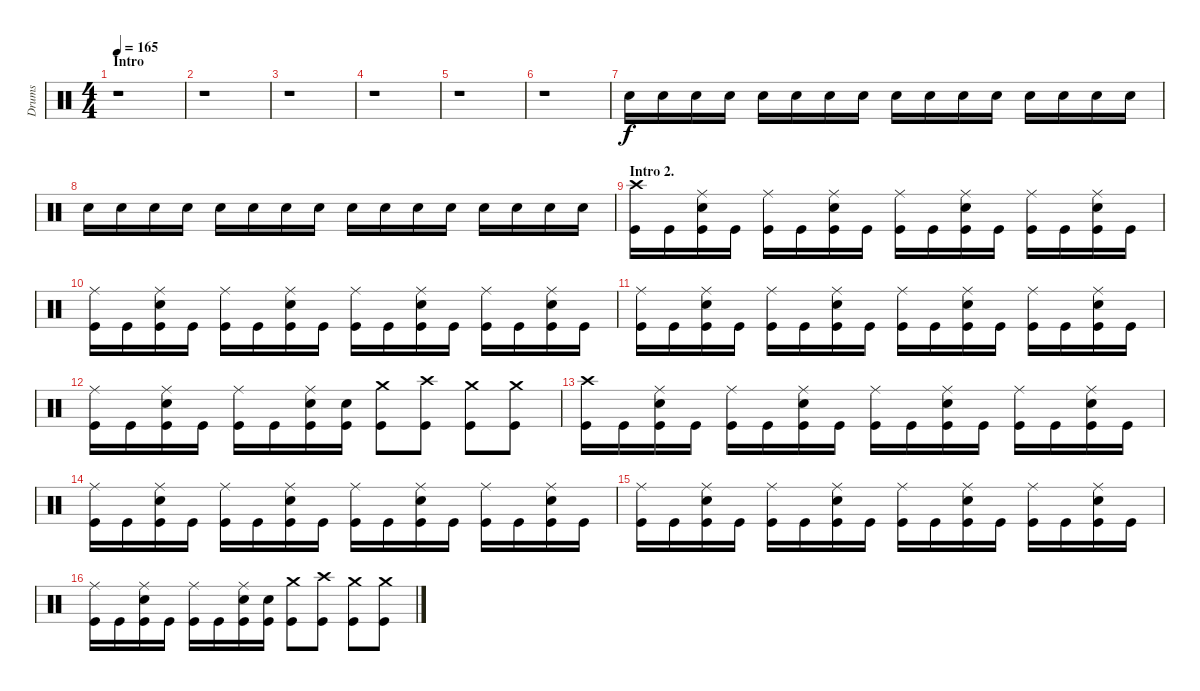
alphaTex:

\track ("Drums" "Drums") {instrument percussion}
\staff {score}
\articulation defaults
\ts (4 4)
\section ("" "Intro")
\tempo 165
\clef neutral
\ks c
r.1{dy f} |
r.1 |
r.1 |
r.1 |
r.1 |
r.1 |
"Snare (hit) 2".16 "Snare (hit) 2".16 "Snare (hit) 2".16 "Snare (hit) 2".16 "Snare (hit) 2".16 "Snare (hit) 2".16 "Snare (hit) 2".16 "Snare (hit) 2".16 "Snare (hit) 2".16 "Snare (hit) 2".16 "Snare (hit) 2".16 "Snare (hit) 2".16 "Snare (hit) 2".16 "Snare (hit) 2".16 "Snare (hit) 2".16 "Snare (hit) 2".16 |
"Snare (hit) 2".16 "Snare (hit) 2".16 "Snare (hit) 2".16 "Snare (hit) 2".16 "Snare (hit) 2".16 "Snare (hit) 2".16 "Snare (hit) 2".16 "Snare (hit) 2".16 "Snare (hit) 2".16 "Snare (hit) 2".16 "Snare (hit) 2".16 "Snare (hit) 2".16 "Snare (hit) 2".16 "Snare (hit) 2".16 "Snare (hit) 2".16 "Snare (hit) 2".16 |
\section ("" "Intro 2.")
("Crash high (hit)" "Kick (hit)").16 "Kick (hit)".16 ("Ride (middle)" "Snare (hit) 2" "Kick (hit)").16 "Kick (hit)".16 ("Ride (middle)" "Kick (hit)").16 "Kick (hit)".16 ("Ride (middle)" "Snare (hit) 2" "Kick (hit)").16 "Kick (hit)".16 ("Ride (middle)" "Kick (hit)").16 "Kick (hit)".16 ("Ride (middle)" "Snare (hit) 2" "Kick (hit)").16 "Kick (hit)".16 ("Ride (middle)" "Kick (hit)").16 "Kick (hit)".16 ("Ride (middle)" "Snare (hit) 2" "Kick (hit)").16 "Kick (hit)".16 |
("Ride (middle)" "Kick (hit)").16 "Kick (hit)".16 ("Ride (middle)" "Snare (hit) 2" "Kick (hit)").16 "Kick (hit)".16 ("Ride (middle)" "Kick (hit)").16 "Kick (hit)".16 ("Ride (middle)" "Snare (hit) 2" "Kick (hit)").16 "Kick (hit)".16 ("Ride (middle)" "Kick (hit)").16 "Kick (hit)".16 ("Ride (middle)" "Snare (hit) 2" "Kick (hit)").16 "Kick (hit)".16 ("Ride (middle)" "Kick (hit)").16 "Kick (hit)".16 ("Ride (middle)" "Snare (hit) 2" "Kick (hit)").16 "Kick (hit)".16 |
("Ride (middle)" "Kick (hit)").16 "Kick (hit)".16 ("Ride (middle)" "Snare (hit) 2" "Kick (hit)").16 "Kick (hit)".16 ("Ride (middle)" "Kick (hit)").16 "Kick (hit)".16 ("Ride (middle)" "Snare (hit) 2" "Kick (hit)").16 "Kick (hit)".16 ("Ride (middle)" "Kick (hit)").16 "Kick (hit)".16 ("Ride (middle)" "Snare (hit) 2" "Kick (hit)").16 "Kick (hit)".16 ("Ride (middle)" "Kick (hit)").16 "Kick (hit)".16 ("Ride (middle)" "Snare (hit) 2" "Kick (hit)").16 "Kick (hit)".16 |
("Ride (middle)" "Kick (hit)").16 "Kick (hit)".16 ("Ride (middle)" "Snare (hit) 2" "Kick (hit)").16 "Kick (hit)".16 ("Ride (middle)" "Kick (hit)").16 "Kick (hit)".16 ("Ride (middle)" "Snare (hit) 2" "Kick (hit)").16 ("Snare (hit) 2" "Kick (hit)").16 ("Crash medium (hit)" "Kick (hit)").8 ("Crash high (hit)" "Kick (hit)").8 ("Crash medium (hit)" "Kick (hit)").8 ("Crash medium (hit)" "Kick (hit)").8 |
("Crash high (hit)" "Kick (hit)").16 "Kick (hit)".16 ("Ride (middle)" "Snare (hit) 2" "Kick (hit)").16 "Kick (hit)".16 ("Ride (middle)" "Kick (hit)").16 "Kick (hit)".16 ("Ride (middle)" "Snare (hit) 2" "Kick (hit)").16 "Kick (hit)".16 ("Ride (middle)" "Kick (hit)").16 "Kick (hit)".16 ("Ride (middle)" "Snare (hit) 2" "Kick (hit)").16 "Kick (hit)".16 ("Ride (middle)" "Kick (hit)").16 "Kick (hit)".16 ("Ride (middle)" "Snare (hit) 2" "Kick (hit)").16 "Kick (hit)".16 |
("Ride (middle)" "Kick (hit)").16 "Kick (hit)".16 ("Ride (middle)" "Snare (hit) 2" "Kick (hit)").16 "Kick (hit)".16 ("Ride (middle)" "Kick (hit)").16 "Kick (hit)".16 ("Ride (middle)" "Snare (hit) 2" "Kick (hit)").16 "Kick (hit)".16 ("Ride (middle)" "Kick (hit)").16 "Kick (hit)".16 ("Ride (middle)" "Snare (hit) 2" "Kick (hit)").16 "Kick (hit)".16 ("Ride (middle)" "Kick (hit)").16 "Kick (hit)".16 ("Ride (middle)" "Snare (hit) 2" "Kick (hit)").16 "Kick (hit)".16 |
("Ride (middle)" "Kick (hit)").16 "Kick (hit)".16 ("Ride (middle)" "Snare (hit) 2" "Kick (hit)").16 "Kick (hit)".16 ("Ride (middle)" "Kick (hit)").16 "Kick (hit)".16 ("Ride (middle)" "Snare (hit) 2" "Kick (hit)").16 "Kick (hit)".16 ("Ride (middle)" "Kick (hit)").16 "Kick (hit)".16 ("Ride (middle)" "Snare (hit) 2" "Kick (hit)").16 "Kick (hit)".16 ("Ride (middle)" "Kick (hit)").16 "Kick (hit)".16 ("Ride (middle)" "Snare (hit) 2" "Kick (hit)").16 "Kick (hit)".16 |
("Ride (middle)" "Kick (hit)").16 "Kick (hit)".16 ("Ride (middle)" "Snare (hit) 2" "Kick (hit)").16 "Kick (hit)".16 ("Ride (middle)" "Kick (hit)").16 "Kick (hit)".16 ("Ride (middle)" "Snare (hit) 2" "Kick (hit)").16 ("Snare (hit) 2" "Kick (hit)").16 ("Crash medium (hit)" "Kick (hit)").8 ("Crash high (hit)" "Kick (hit)").8 ("Crash medium (hit)" "Kick (hit)").8 ("Crash medium (hit)" "Kick (hit)").8
